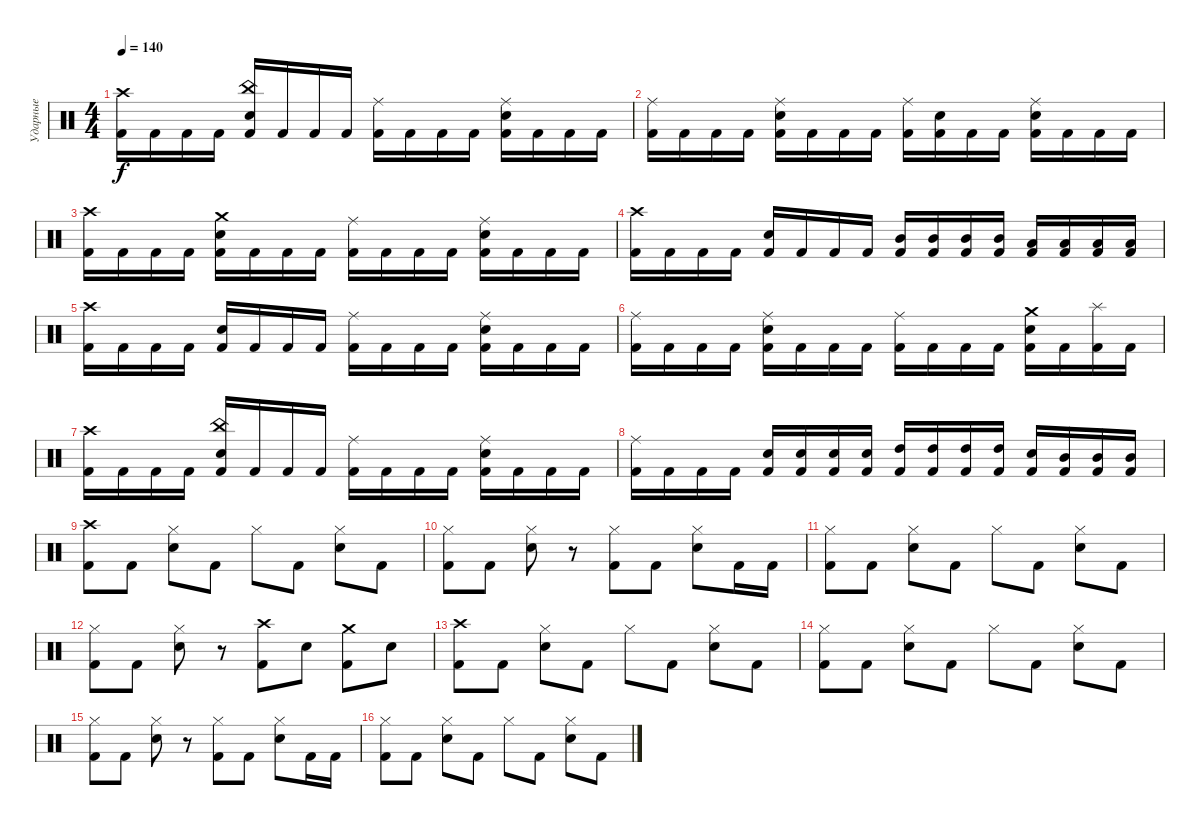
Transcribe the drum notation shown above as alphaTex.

\track ("Ударные" "Ударные") {instrument percussion}
\staff {score}
\articulation defaults
\ts (4 4)
\tempo 140
\clef neutral
\ks c
("Kick (hit) 2" "Crash high (hit)").16{dy f} "Kick (hit) 2".16 "Kick (hit) 2".16 "Kick (hit) 2".16 ("Kick (hit) 2" "China (hit)" "Electric Snare (hit)").16 "Kick (hit) 2".16 "Kick (hit) 2".16 "Kick (hit) 2".16 ("Kick (hit) 2" "Ride (middle)").16 "Kick (hit) 2".16 "Kick (hit) 2".16 "Kick (hit) 2".16 ("Kick (hit) 2" "Ride (middle)" "Electric Snare (hit)").16 "Kick (hit) 2".16 "Kick (hit) 2".16 "Kick (hit) 2".16 |
("Kick (hit) 2" "Ride (middle)").16 "Kick (hit) 2".16 "Kick (hit) 2".16 "Kick (hit) 2".16 ("Kick (hit) 2" "Ride (middle)" "Electric Snare (hit)").16 "Kick (hit) 2".16 "Kick (hit) 2".16 "Kick (hit) 2".16 ("Kick (hit) 2" "Ride (middle)").16 ("Kick (hit) 2" "Electric Snare (hit)").16 "Kick (hit) 2".16 "Kick (hit) 2".16 ("Kick (hit) 2" "Ride (middle)" "Electric Snare (hit)").16 "Kick (hit) 2".16 "Kick (hit) 2".16 "Kick (hit) 2".16 |
("Kick (hit) 2" "Crash high (hit)").16 "Kick (hit) 2".16 "Kick (hit) 2".16 "Kick (hit) 2".16 ("Kick (hit) 2" "Crash medium (hit)" "Electric Snare (hit)").16 "Kick (hit) 2".16 "Kick (hit) 2".16 "Kick (hit) 2".16 ("Kick (hit) 2" "Ride (middle)").16 "Kick (hit) 2".16 "Kick (hit) 2".16 "Kick (hit) 2".16 ("Kick (hit) 2" "Ride (middle)" "Electric Snare (hit)").16 "Kick (hit) 2".16 "Kick (hit) 2".16 "Kick (hit) 2".16 |
("Kick (hit) 2" "Crash high (hit)").16 "Kick (hit) 2".16 "Kick (hit) 2".16 "Kick (hit) 2".16 ("Kick (hit) 2" "Electric Snare (hit)").16 "Kick (hit) 2".16 "Kick (hit) 2".16 "Kick (hit) 2".16 ("Kick (hit) 2" "Mid Tom (hit)").16 ("Kick (hit) 2" "Mid Tom (hit)").16 ("Kick (hit) 2" "Mid Tom (hit)").16 ("Kick (hit) 2" "Mid Tom (hit)").16 ("Kick (hit) 2" "Low Tom (hit)").16 ("Kick (hit) 2" "Low Tom (hit)").16 ("Kick (hit) 2" "Low Tom (hit)").16 ("Kick (hit) 2" "Low Tom (hit)").16 |
("Kick (hit) 2" "Crash high (hit)").16 "Kick (hit) 2".16 "Kick (hit) 2".16 "Kick (hit) 2".16 ("Kick (hit) 2" "Electric Snare (hit)").16 "Kick (hit) 2".16 "Kick (hit) 2".16 "Kick (hit) 2".16 ("Kick (hit) 2" "Ride (middle)").16 "Kick (hit) 2".16 "Kick (hit) 2".16 "Kick (hit) 2".16 ("Kick (hit) 2" "Ride (middle)" "Electric Snare (hit)").16 "Kick (hit) 2".16 "Kick (hit) 2".16 "Kick (hit) 2".16 |
("Kick (hit) 2" "Ride (middle)").16 "Kick (hit) 2".16 "Kick (hit) 2".16 "Kick (hit) 2".16 ("Kick (hit) 2" "Ride (middle)" "Electric Snare (hit)").16 "Kick (hit) 2".16 "Kick (hit) 2".16 "Kick (hit) 2".16 ("Kick (hit) 2" "Ride (middle)").16 "Kick (hit) 2".16 "Kick (hit) 2".16 "Kick (hit) 2".16 ("Kick (hit) 2" "Crash medium (hit)" "Electric Snare (hit)").16 "Kick (hit) 2".16 ("Kick (hit) 2" "Splash (hit)").16 "Kick (hit) 2".16 |
("Kick (hit) 2" "Crash high (hit)").16 "Kick (hit) 2".16 "Kick (hit) 2".16 "Kick (hit) 2".16 ("Kick (hit) 2" "China (hit)" "Electric Snare (hit)").16 "Kick (hit) 2".16 "Kick (hit) 2".16 "Kick (hit) 2".16 ("Kick (hit) 2" "Ride (middle)").16 "Kick (hit) 2".16 "Kick (hit) 2".16 "Kick (hit) 2".16 ("Kick (hit) 2" "Ride (middle)" "Electric Snare (hit)").16 "Kick (hit) 2".16 "Kick (hit) 2".16 "Kick (hit) 2".16 |
("Kick (hit) 2" "Ride (middle)").16 "Kick (hit) 2".16 "Kick (hit) 2".16 "Kick (hit) 2".16 ("Kick (hit) 2" "Electric Snare (hit)").16 ("Kick (hit) 2" "Electric Snare (hit)").16 ("Kick (hit) 2" "Electric Snare (hit)").16 ("Kick (hit) 2" "Electric Snare (hit)").16 ("Kick (hit) 2" "High Tom (hit)").16 ("Kick (hit) 2" "High Tom (hit)").16 ("Kick (hit) 2" "High Tom (hit)").16 ("Kick (hit) 2" "High Tom (hit)").16 ("Kick (hit) 2" "Electric Snare (hit)").16 ("Kick (hit) 2" "Mid Tom (hit)").16 ("Kick (hit) 2" "Mid Tom (hit)").16 ("Kick (hit) 2" "Mid Tom (hit)").16 |
("Kick (hit) 2" "Crash high (hit)").8 "Kick (hit) 2".8 ("Electric Snare (hit)" "Hi-Hat (closed)").8 "Kick (hit) 2".8 "Hi-Hat (closed)".8 "Kick (hit) 2".8 ("Electric Snare (hit)" "Hi-Hat (closed)").8 "Kick (hit) 2".8 |
("Kick (hit) 2" "Hi-Hat (closed)").8 "Kick (hit) 2".8 ("Electric Snare (hit)" "Hi-Hat (closed)").8 r.8 ("Kick (hit) 2" "Hi-Hat (closed)").8 "Kick (hit) 2".8 ("Electric Snare (hit)" "Hi-Hat (closed)").8 "Kick (hit) 2".16 "Kick (hit) 2".16 |
("Kick (hit) 2" "Hi-Hat (closed)").8 "Kick (hit) 2".8 ("Electric Snare (hit)" "Hi-Hat (closed)").8 "Kick (hit) 2".8 "Hi-Hat (closed)".8 "Kick (hit) 2".8 ("Electric Snare (hit)" "Hi-Hat (closed)").8 "Kick (hit) 2".8 |
("Kick (hit) 2" "Hi-Hat (closed)").8 "Kick (hit) 2".8 ("Electric Snare (hit)" "Hi-Hat (closed)").8 r.8 ("Kick (hit) 2" "Crash high (hit)").8 "Electric Snare (hit)".8 ("Kick (hit) 2" "Crash medium (hit)").8 "Electric Snare (hit)".8 |
("Kick (hit) 2" "Crash high (hit)").8 "Kick (hit) 2".8 ("Electric Snare (hit)" "Hi-Hat (closed)").8 "Kick (hit) 2".8 "Hi-Hat (closed)".8 "Kick (hit) 2".8 ("Electric Snare (hit)" "Hi-Hat (closed)").8 "Kick (hit) 2".8 |
("Kick (hit) 2" "Hi-Hat (closed)").8 "Kick (hit) 2".8 ("Electric Snare (hit)" "Hi-Hat (closed)").8 "Kick (hit) 2".8 "Hi-Hat (closed)".8 "Kick (hit) 2".8 ("Electric Snare (hit)" "Hi-Hat (closed)").8 "Kick (hit) 2".8 |
("Kick (hit) 2" "Hi-Hat (closed)").8 "Kick (hit) 2".8 ("Electric Snare (hit)" "Hi-Hat (closed)").8 r.8 ("Kick (hit) 2" "Hi-Hat (closed)").8 "Kick (hit) 2".8 ("Electric Snare (hit)" "Hi-Hat (closed)").8 "Kick (hit) 2".16 "Kick (hit) 2".16 |
("Kick (hit) 2" "Hi-Hat (closed)").8 "Kick (hit) 2".8 ("Electric Snare (hit)" "Hi-Hat (closed)").8 "Kick (hit) 2".8 "Hi-Hat (closed)".8 "Kick (hit) 2".8 ("Electric Snare (hit)" "Hi-Hat (closed)").8 "Kick (hit) 2".8
